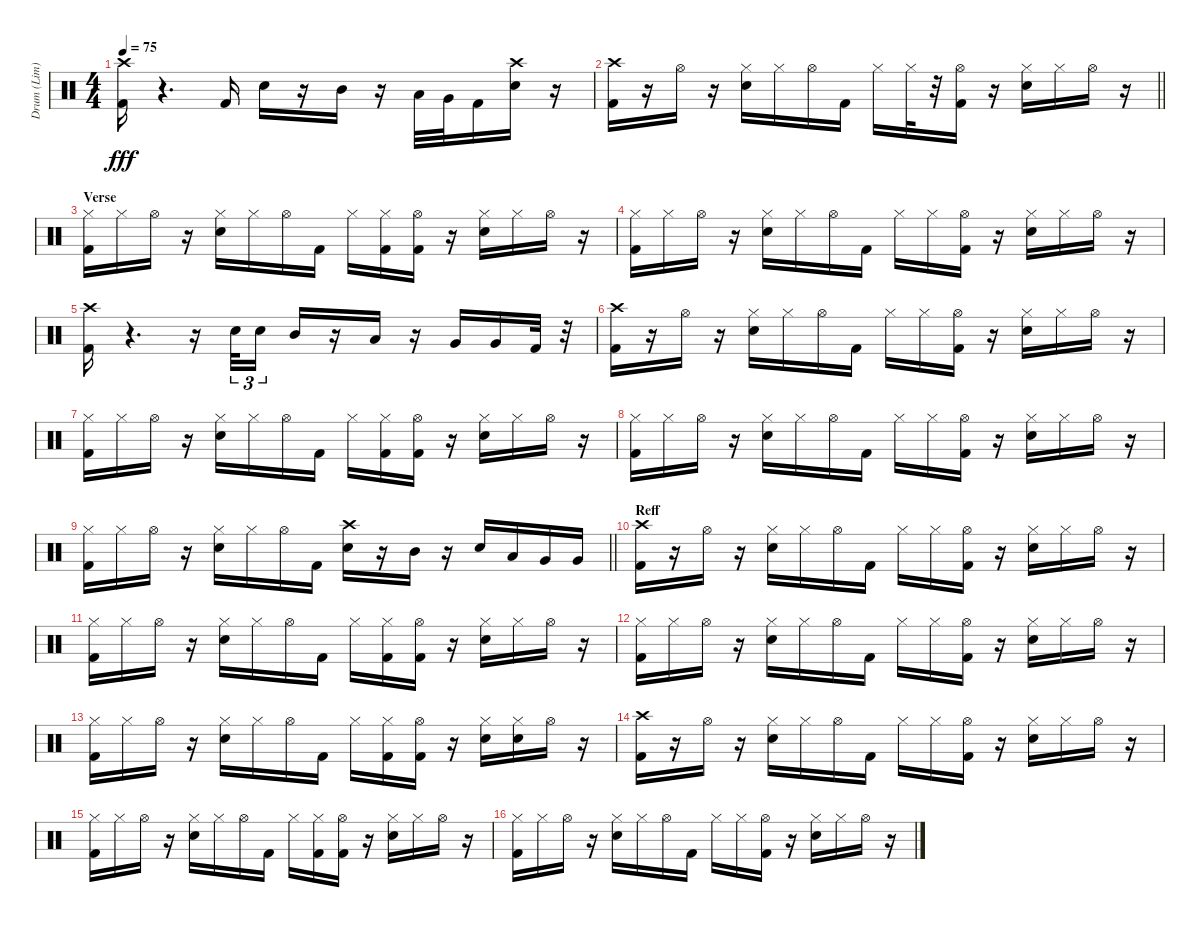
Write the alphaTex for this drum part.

\track ("Drum (Lim)" "Drum (Lim)") {instrument percussion}
\staff {score}
\articulation defaults
\ts (4 4)
\tempo 75
\clef neutral
\ks c
("Kick (hit) 2" "Crash high (hit)").16{dy fff} r.4{d} "Kick (hit) 2".16 "Electric Snare (hit)".16 r.16 "Mid Tom (hit)".16 r.16 "Low Tom (hit)".32 "Very Low Tom (hit)".32 "Kick (hit) 2".16 ("Crash high (hit)" "Electric Snare (hit)").16 r.16 |
\barLineRight lightlight
("Kick (hit) 2" "Crash high (hit)").16 r.16 "Hi-Hat (open)".16 r.16 ("Hi-Hat (closed)" "Electric Snare (hit)").16 "Hi-Hat (closed)".16 "Hi-Hat (open)".16 "Kick (hit) 2".16 "Hi-Hat (closed)".16 "Hi-Hat (closed)".32 r.32 ("Hi-Hat (open)" "Kick (hit) 2").16 r.16 ("Hi-Hat (closed)" "Electric Snare (hit)").16 "Hi-Hat (closed)".16 "Hi-Hat (open)".16 r.16 |
\section ("" "Verse")
("Kick (hit) 2" "Hi-Hat (closed)").16 "Hi-Hat (closed)".16 "Hi-Hat (open)".16 r.16 ("Electric Snare (hit)" "Hi-Hat (closed)").16 "Hi-Hat (closed)".16 "Hi-Hat (open)".16 "Kick (hit) 2".16 "Hi-Hat (closed)".16 ("Kick (hit) 2" "Hi-Hat (closed)").16 ("Hi-Hat (open)" "Kick (hit) 2").16 r.16 ("Electric Snare (hit)" "Hi-Hat (closed)").16 "Hi-Hat (closed)".16 "Hi-Hat (open)".16 r.16 |
("Kick (hit) 2" "Hi-Hat (closed)").16 "Hi-Hat (closed)".16 "Hi-Hat (open)".16 r.16 ("Hi-Hat (closed)" "Electric Snare (hit)").16 "Hi-Hat (closed)".16 "Hi-Hat (open)".16 "Kick (hit) 2".16 "Hi-Hat (closed)".16 "Hi-Hat (closed)".16 ("Kick (hit) 2" "Hi-Hat (open)").16 r.16 ("Electric Snare (hit)" "Hi-Hat (closed)").16 "Hi-Hat (closed)".16 "Hi-Hat (open)".16 r.16 |
("Crash high (hit)" "Kick (hit) 2").16 r.4{d} r.16 "Electric Snare (hit)".32{tu (3 2)} "Electric Snare (hit)".16{tu (3 2) beam splitsecondary} "Mid Tom (hit)".16 r.16 "Low Tom (hit)".16 r.16 "Very Low Tom (hit)".16 "Very Low Tom (hit)".16 "Kick (hit) 2".32 r.32 |
("Kick (hit) 2" "Crash high (hit)").16 r.16 "Hi-Hat (open)".16 r.16 ("Hi-Hat (closed)" "Electric Snare (hit)").16 "Hi-Hat (closed)".16 "Hi-Hat (open)".16 "Kick (hit) 2".16 "Hi-Hat (closed)".16 "Hi-Hat (closed)".16 ("Kick (hit) 2" "Hi-Hat (open)").16 r.16 ("Hi-Hat (closed)" "Electric Snare (hit)").16 "Hi-Hat (closed)".16 "Hi-Hat (open)".16 r.16 |
("Kick (hit) 2" "Hi-Hat (closed)").16 "Hi-Hat (closed)".16 "Hi-Hat (open)".16 r.16 ("Hi-Hat (closed)" "Electric Snare (hit)").16 "Hi-Hat (closed)".16 "Hi-Hat (open)".16 "Kick (hit) 2".16 "Hi-Hat (closed)".16 ("Kick (hit) 2" "Hi-Hat (closed)").16 ("Hi-Hat (open)" "Kick (hit) 2").16 r.16 ("Hi-Hat (closed)" "Electric Snare (hit)").16 "Hi-Hat (closed)".16 "Hi-Hat (open)".16 r.16 |
("Hi-Hat (closed)" "Kick (hit) 2").16 "Hi-Hat (closed)".16 "Hi-Hat (open)".16 r.16 ("Electric Snare (hit)" "Hi-Hat (closed)").16 "Hi-Hat (closed)".16 "Hi-Hat (open)".16 "Kick (hit) 2".16 "Hi-Hat (closed)".16 "Hi-Hat (closed)".16 ("Kick (hit) 2" "Hi-Hat (open)").16 r.16 ("Electric Snare (hit)" "Hi-Hat (closed)").16 "Hi-Hat (closed)".16 "Hi-Hat (open)".16 r.16 |
\barLineRight lightlight
("Hi-Hat (closed)" "Kick (hit) 2").16 "Hi-Hat (closed)".16 "Hi-Hat (open)".16 r.16 ("Electric Snare (hit)" "Hi-Hat (closed)").16 "Hi-Hat (closed)".16 "Hi-Hat (open)".16 "Kick (hit) 2".16 ("Crash high (hit)" "Electric Snare (hit)").16 r.16 "Mid Tom (hit)".16 r.16 "Electric Snare (hit)".16 "Low Tom (hit)".16 "Very Low Tom (hit)".16 "Very Low Tom (hit)".16 |
\section ("" "Reff")
("Crash high (hit)" "Kick (hit) 2").16 r.16 "Hi-Hat (open)".16 r.16 ("Hi-Hat (closed)" "Electric Snare (hit)").16 "Hi-Hat (closed)".16 "Hi-Hat (open)".16 "Kick (hit) 2".16 "Hi-Hat (closed)".16 "Hi-Hat (closed)".16 ("Hi-Hat (open)" "Kick (hit) 2").16 r.16 ("Hi-Hat (closed)" "Electric Snare (hit)").16 "Hi-Hat (closed)".16 "Hi-Hat (open)".16 r.16 |
("Hi-Hat (closed)" "Kick (hit) 2").16 "Hi-Hat (closed)".16 "Hi-Hat (open)".16 r.16 ("Hi-Hat (closed)" "Electric Snare (hit)").16 "Hi-Hat (closed)".16 "Hi-Hat (open)".16 "Kick (hit) 2".16 "Hi-Hat (closed)".16 ("Kick (hit) 2" "Hi-Hat (closed)").16 ("Kick (hit) 2" "Hi-Hat (open)").16 r.16 ("Electric Snare (hit)" "Hi-Hat (closed)").16 "Hi-Hat (closed)".16 "Hi-Hat (open)".16 r.16 |
("Hi-Hat (closed)" "Kick (hit) 2").16 "Hi-Hat (closed)".16 "Hi-Hat (open)".16 r.16 ("Electric Snare (hit)" "Hi-Hat (closed)").16 "Hi-Hat (closed)".16 "Hi-Hat (open)".16 "Kick (hit) 2".16 "Hi-Hat (closed)".16 "Hi-Hat (closed)".16 ("Hi-Hat (open)" "Kick (hit) 2").16 r.16 ("Electric Snare (hit)" "Hi-Hat (closed)").16 "Hi-Hat (closed)".16 "Hi-Hat (open)".16 r.16 |
("Hi-Hat (closed)" "Kick (hit) 2").16 "Hi-Hat (closed)".16 "Hi-Hat (open)".16 r.16 ("Electric Snare (hit)" "Hi-Hat (closed)").16 "Hi-Hat (closed)".16 "Hi-Hat (open)".16 "Kick (hit) 2".16 "Hi-Hat (closed)".16 ("Hi-Hat (closed)" "Kick (hit) 2").16 ("Kick (hit) 2" "Hi-Hat (open)").16 r.16 ("Electric Snare (hit)" "Hi-Hat (closed)").16 ("Hi-Hat (closed)" "Electric Snare (hit)").16 "Hi-Hat (open)".16 r.16 |
("Crash high (hit)" "Kick (hit) 2").16 r.16 "Hi-Hat (open)".16 r.16 ("Hi-Hat (closed)" "Electric Snare (hit)").16 "Hi-Hat (closed)".16 "Hi-Hat (open)".16 "Kick (hit) 2".16 "Hi-Hat (closed)".16 "Hi-Hat (closed)".16 ("Hi-Hat (open)" "Kick (hit) 2").16 r.16 ("Hi-Hat (closed)" "Electric Snare (hit)").16 "Hi-Hat (closed)".16 "Hi-Hat (open)".16 r.16 |
("Hi-Hat (closed)" "Kick (hit) 2").16 "Hi-Hat (closed)".16 "Hi-Hat (open)".16 r.16 ("Hi-Hat (closed)" "Electric Snare (hit)").16 "Hi-Hat (closed)".16 "Hi-Hat (open)".16 "Kick (hit) 2".16 "Hi-Hat (closed)".16 ("Hi-Hat (closed)" "Kick (hit) 2").16 ("Hi-Hat (open)" "Kick (hit) 2").16 r.16 ("Electric Snare (hit)" "Hi-Hat (closed)").16 "Hi-Hat (closed)".16 "Hi-Hat (open)".16 r.16 |
("Hi-Hat (closed)" "Kick (hit) 2").16 "Hi-Hat (closed)".16 "Hi-Hat (open)".16 r.16 ("Electric Snare (hit)" "Hi-Hat (closed)").16 "Hi-Hat (closed)".16 "Hi-Hat (open)".16 "Kick (hit) 2".16 "Hi-Hat (closed)".16 "Hi-Hat (closed)".16 ("Hi-Hat (open)" "Kick (hit) 2").16 r.16 ("Electric Snare (hit)" "Hi-Hat (closed)").16 "Hi-Hat (closed)".16 "Hi-Hat (open)".16 r.16
